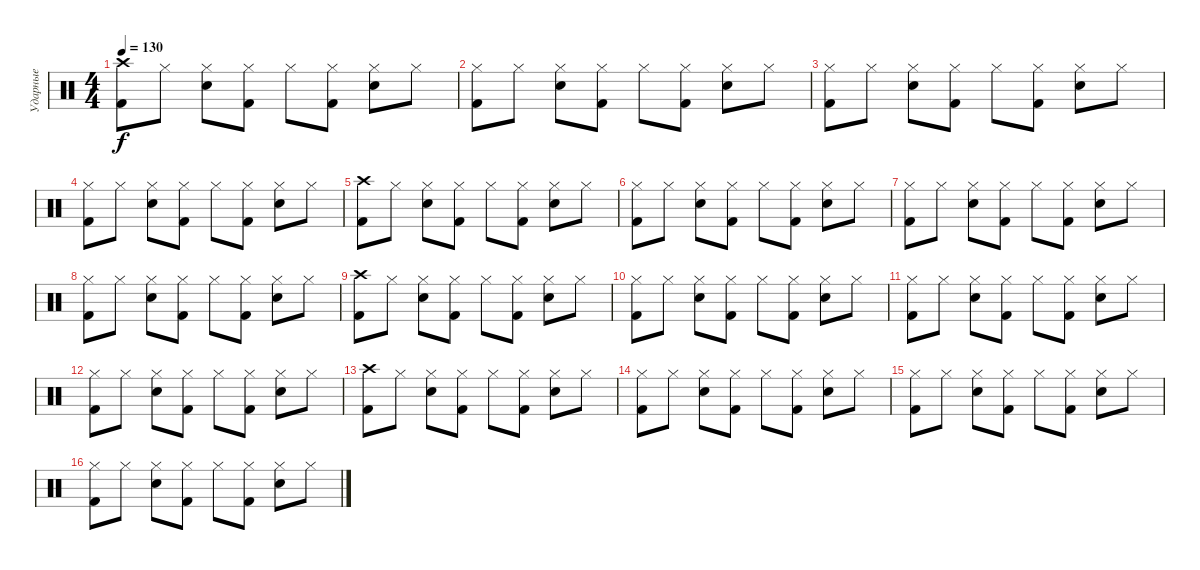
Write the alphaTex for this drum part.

\track ("Ударные" "Ударные") {instrument percussion}
\staff {score}
\articulation defaults
\ts (4 4)
\tempo 130
\clef neutral
\ks c
("Crash high (hit)" "Kick (hit) 2").8{dy f} "Hi-Hat (closed)".8 ("Hi-Hat (closed)" "Snare (hit) 2").8 ("Hi-Hat (closed)" "Kick (hit) 2").8 "Hi-Hat (closed)".8 ("Hi-Hat (closed)" "Kick (hit) 2").8 ("Hi-Hat (closed)" "Snare (hit) 2").8 "Hi-Hat (closed)".8 |
("Hi-Hat (closed)" "Kick (hit) 2").8 "Hi-Hat (closed)".8 ("Hi-Hat (closed)" "Snare (hit) 2").8 ("Hi-Hat (closed)" "Kick (hit) 2").8 "Hi-Hat (closed)".8 ("Hi-Hat (closed)" "Kick (hit) 2").8 ("Hi-Hat (closed)" "Snare (hit) 2").8 "Hi-Hat (closed)".8 |
("Hi-Hat (closed)" "Kick (hit) 2").8 "Hi-Hat (closed)".8 ("Hi-Hat (closed)" "Snare (hit) 2").8 ("Hi-Hat (closed)" "Kick (hit) 2").8 "Hi-Hat (closed)".8 ("Hi-Hat (closed)" "Kick (hit) 2").8 ("Hi-Hat (closed)" "Snare (hit) 2").8 "Hi-Hat (closed)".8 |
("Hi-Hat (closed)" "Kick (hit) 2").8 "Hi-Hat (closed)".8 ("Hi-Hat (closed)" "Snare (hit) 2").8 ("Hi-Hat (closed)" "Kick (hit) 2").8 "Hi-Hat (closed)".8 ("Hi-Hat (closed)" "Kick (hit) 2").8 ("Hi-Hat (closed)" "Snare (hit) 2").8 "Hi-Hat (closed)".8 |
("Crash high (hit)" "Kick (hit) 2").8 "Hi-Hat (closed)".8 ("Hi-Hat (closed)" "Snare (hit) 2").8 ("Hi-Hat (closed)" "Kick (hit) 2").8 "Hi-Hat (closed)".8 ("Hi-Hat (closed)" "Kick (hit) 2").8 ("Hi-Hat (closed)" "Snare (hit) 2").8 "Hi-Hat (closed)".8 |
("Hi-Hat (closed)" "Kick (hit) 2").8 "Hi-Hat (closed)".8 ("Hi-Hat (closed)" "Snare (hit) 2").8 ("Hi-Hat (closed)" "Kick (hit) 2").8 "Hi-Hat (closed)".8 ("Hi-Hat (closed)" "Kick (hit) 2").8 ("Hi-Hat (closed)" "Snare (hit) 2").8 "Hi-Hat (closed)".8 |
("Hi-Hat (closed)" "Kick (hit) 2").8 "Hi-Hat (closed)".8 ("Hi-Hat (closed)" "Snare (hit) 2").8 ("Hi-Hat (closed)" "Kick (hit) 2").8 "Hi-Hat (closed)".8 ("Hi-Hat (closed)" "Kick (hit) 2").8 ("Hi-Hat (closed)" "Snare (hit) 2").8 "Hi-Hat (closed)".8 |
("Hi-Hat (closed)" "Kick (hit) 2").8 "Hi-Hat (closed)".8 ("Hi-Hat (closed)" "Snare (hit) 2").8 ("Hi-Hat (closed)" "Kick (hit) 2").8 "Hi-Hat (closed)".8 ("Hi-Hat (closed)" "Kick (hit) 2").8 ("Hi-Hat (closed)" "Snare (hit) 2").8 "Hi-Hat (closed)".8 |
("Crash high (hit)" "Kick (hit) 2").8 "Hi-Hat (closed)".8 ("Hi-Hat (closed)" "Snare (hit) 2").8 ("Hi-Hat (closed)" "Kick (hit) 2").8 "Hi-Hat (closed)".8 ("Hi-Hat (closed)" "Kick (hit) 2").8 ("Hi-Hat (closed)" "Snare (hit) 2").8 "Hi-Hat (closed)".8 |
("Hi-Hat (closed)" "Kick (hit) 2").8 "Hi-Hat (closed)".8 ("Hi-Hat (closed)" "Snare (hit) 2").8 ("Hi-Hat (closed)" "Kick (hit) 2").8 "Hi-Hat (closed)".8 ("Hi-Hat (closed)" "Kick (hit) 2").8 ("Hi-Hat (closed)" "Snare (hit) 2").8 "Hi-Hat (closed)".8 |
("Hi-Hat (closed)" "Kick (hit) 2").8 "Hi-Hat (closed)".8 ("Hi-Hat (closed)" "Snare (hit) 2").8 ("Hi-Hat (closed)" "Kick (hit) 2").8 "Hi-Hat (closed)".8 ("Hi-Hat (closed)" "Kick (hit) 2").8 ("Hi-Hat (closed)" "Snare (hit) 2").8 "Hi-Hat (closed)".8 |
("Hi-Hat (closed)" "Kick (hit) 2").8 "Hi-Hat (closed)".8 ("Hi-Hat (closed)" "Snare (hit) 2").8 ("Hi-Hat (closed)" "Kick (hit) 2").8 "Hi-Hat (closed)".8 ("Hi-Hat (closed)" "Kick (hit) 2").8 ("Hi-Hat (closed)" "Snare (hit) 2").8 "Hi-Hat (closed)".8 |
("Crash high (hit)" "Kick (hit) 2").8 "Hi-Hat (closed)".8 ("Hi-Hat (closed)" "Snare (hit) 2").8 ("Hi-Hat (closed)" "Kick (hit) 2").8 "Hi-Hat (closed)".8 ("Hi-Hat (closed)" "Kick (hit) 2").8 ("Hi-Hat (closed)" "Snare (hit) 2").8 "Hi-Hat (closed)".8 |
("Hi-Hat (closed)" "Kick (hit) 2").8 "Hi-Hat (closed)".8 ("Hi-Hat (closed)" "Snare (hit) 2").8 ("Hi-Hat (closed)" "Kick (hit) 2").8 "Hi-Hat (closed)".8 ("Hi-Hat (closed)" "Kick (hit) 2").8 ("Hi-Hat (closed)" "Snare (hit) 2").8 "Hi-Hat (closed)".8 |
("Hi-Hat (closed)" "Kick (hit) 2").8 "Hi-Hat (closed)".8 ("Hi-Hat (closed)" "Snare (hit) 2").8 ("Hi-Hat (closed)" "Kick (hit) 2").8 "Hi-Hat (closed)".8 ("Hi-Hat (closed)" "Kick (hit) 2").8 ("Hi-Hat (closed)" "Snare (hit) 2").8 "Hi-Hat (closed)".8 |
("Hi-Hat (closed)" "Kick (hit) 2").8 "Hi-Hat (closed)".8 ("Hi-Hat (closed)" "Snare (hit) 2").8 ("Hi-Hat (closed)" "Kick (hit) 2").8 "Hi-Hat (closed)".8 ("Hi-Hat (closed)" "Kick (hit) 2").8 ("Hi-Hat (closed)" "Snare (hit) 2").8 "Hi-Hat (closed)".8
